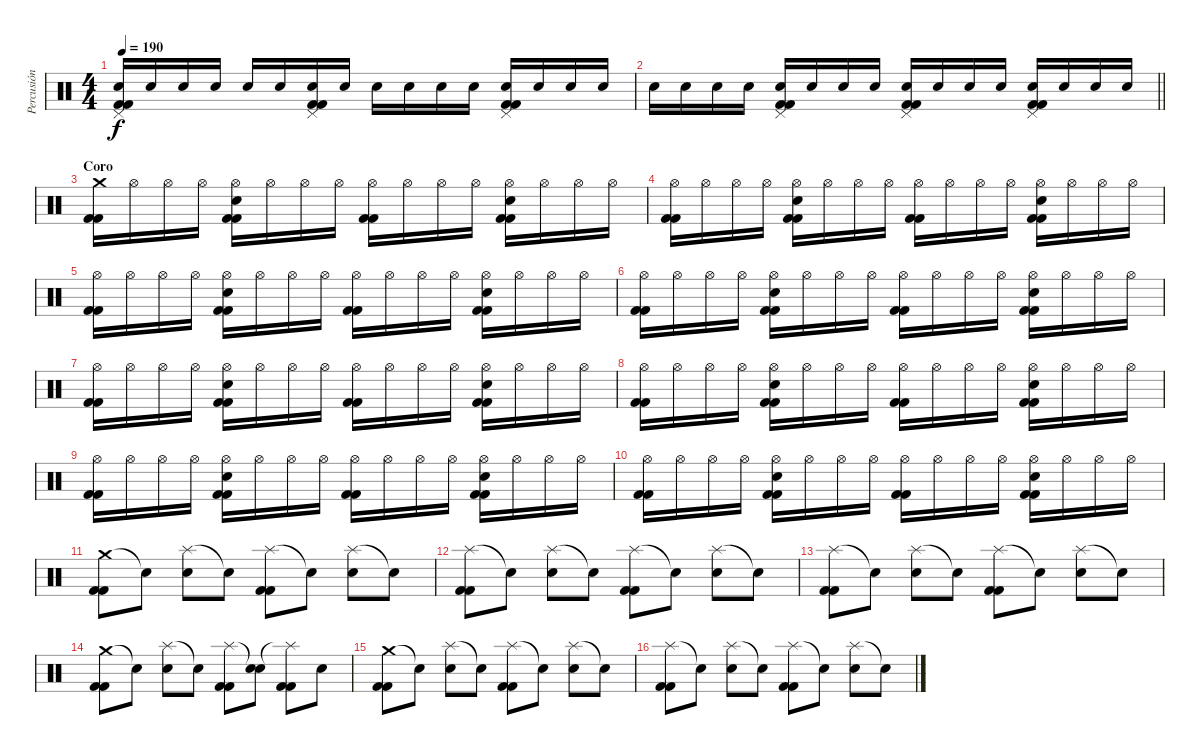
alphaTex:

\track ("Percusión" "Percusión") {instrument percussion}
\staff {score}
\articulation defaults
\ts (4 4)
\tempo 190
\clef neutral
\ks c
("Pedal Hi-Hat (hit)" "Electric Snare (hit)" "Kick (hit) 2" "Kick (hit) 2").16{dy f} "Snare (hit) 2".16 "Snare (hit) 2".16 "Snare (hit) 2".16 "Snare (hit) 2".16 "Snare (hit) 2".16 ("Pedal Hi-Hat (hit)" "Electric Snare (hit)" "Kick (hit) 2" "Kick (hit) 2").16 "Snare (hit) 2".16 "Snare (hit) 2".16 "Snare (hit) 2".16 "Snare (hit) 2".16 "Snare (hit) 2".16 ("Pedal Hi-Hat (hit)" "Electric Snare (hit)" "Kick (hit) 2" "Kick (hit) 2").16 "Snare (hit) 2".16 "Snare (hit) 2".16 "Snare (hit) 2".16 |
\barLineRight lightlight "Snare (hit) 2".16 "Snare (hit) 2".16 "Snare (hit) 2".16 "Snare (hit) 2".16
("Pedal Hi-Hat (hit)" "Electric Snare (hit)" "Kick (hit) 2" "Kick (hit) 2").16 "Snare (hit) 2".16 "Snare (hit) 2".16 "Snare (hit) 2".16 ("Pedal Hi-Hat (hit)" "Electric Snare (hit)" "Kick (hit) 2" "Kick (hit) 2").16 "Snare (hit) 2".16 "Snare (hit) 2".16 "Snare (hit) 2".16 ("Pedal Hi-Hat (hit)" "Electric Snare (hit)" "Kick (hit) 2" "Kick (hit) 2").16 "Snare (hit) 2".16 "Snare (hit) 2".16 "Snare (hit) 2".16 |
\section ("" "Coro")
("Crash medium (hit)" "Kick (hit) 2" "Kick (hit) 2").16 "Hi-Hat (open)".16 "Hi-Hat (open)".16 "Hi-Hat (open)".16 ("Hi-Hat (open)" "Electric Snare (hit)" "Kick (hit) 2" "Kick (hit) 2").16 "Hi-Hat (open)".16 "Hi-Hat (open)".16 "Hi-Hat (open)".16 ("Hi-Hat (open)" "Kick (hit) 2" "Kick (hit) 2").16 "Hi-Hat (open)".16 "Hi-Hat (open)".16 "Hi-Hat (open)".16 ("Hi-Hat (open)" "Electric Snare (hit)" "Kick (hit) 2" "Kick (hit) 2").16 "Hi-Hat (open)".16 "Hi-Hat (open)".16 "Hi-Hat (open)".16 |
("Hi-Hat (open)" "Kick (hit) 2" "Kick (hit) 2").16 "Hi-Hat (open)".16 "Hi-Hat (open)".16 "Hi-Hat (open)".16 ("Hi-Hat (open)" "Electric Snare (hit)" "Kick (hit) 2" "Kick (hit) 2").16 "Hi-Hat (open)".16 "Hi-Hat (open)".16 "Hi-Hat (open)".16 ("Hi-Hat (open)" "Kick (hit) 2" "Kick (hit) 2").16 "Hi-Hat (open)".16 "Hi-Hat (open)".16 "Hi-Hat (open)".16 ("Hi-Hat (open)" "Electric Snare (hit)" "Kick (hit) 2" "Kick (hit) 2").16 "Hi-Hat (open)".16 "Hi-Hat (open)".16 "Hi-Hat (open)".16 |
("Hi-Hat (open)" "Kick (hit) 2" "Kick (hit) 2").16 "Hi-Hat (open)".16 "Hi-Hat (open)".16 "Hi-Hat (open)".16 ("Hi-Hat (open)" "Electric Snare (hit)" "Kick (hit) 2" "Kick (hit) 2").16 "Hi-Hat (open)".16 "Hi-Hat (open)".16 "Hi-Hat (open)".16 ("Hi-Hat (open)" "Kick (hit) 2" "Kick (hit) 2").16 "Hi-Hat (open)".16 "Hi-Hat (open)".16 "Hi-Hat (open)".16 ("Hi-Hat (open)" "Electric Snare (hit)" "Kick (hit) 2" "Kick (hit) 2").16 "Hi-Hat (open)".16 "Hi-Hat (open)".16 "Hi-Hat (open)".16 |
("Hi-Hat (open)" "Kick (hit) 2" "Kick (hit) 2").16 "Hi-Hat (open)".16 "Hi-Hat (open)".16 "Hi-Hat (open)".16 ("Hi-Hat (open)" "Electric Snare (hit)" "Kick (hit) 2" "Kick (hit) 2").16 "Hi-Hat (open)".16 "Hi-Hat (open)".16 "Hi-Hat (open)".16 ("Hi-Hat (open)" "Kick (hit) 2" "Kick (hit) 2").16 "Hi-Hat (open)".16 "Hi-Hat (open)".16 "Hi-Hat (open)".16 ("Hi-Hat (open)" "Electric Snare (hit)" "Kick (hit) 2" "Kick (hit) 2").16 "Hi-Hat (open)".16 "Hi-Hat (open)".16 "Hi-Hat (open)".16 |
("Hi-Hat (open)" "Kick (hit) 2" "Kick (hit) 2").16 "Hi-Hat (open)".16 "Hi-Hat (open)".16 "Hi-Hat (open)".16 ("Hi-Hat (open)" "Electric Snare (hit)" "Kick (hit) 2" "Kick (hit) 2").16 "Hi-Hat (open)".16 "Hi-Hat (open)".16 "Hi-Hat (open)".16 ("Hi-Hat (open)" "Kick (hit) 2" "Kick (hit) 2").16 "Hi-Hat (open)".16 "Hi-Hat (open)".16 "Hi-Hat (open)".16 ("Hi-Hat (open)" "Electric Snare (hit)" "Kick (hit) 2" "Kick (hit) 2").16 "Hi-Hat (open)".16 "Hi-Hat (open)".16 "Hi-Hat (open)".16 |
("Hi-Hat (open)" "Kick (hit) 2" "Kick (hit) 2").16 "Hi-Hat (open)".16 "Hi-Hat (open)".16 "Hi-Hat (open)".16 ("Hi-Hat (open)" "Electric Snare (hit)" "Kick (hit) 2" "Kick (hit) 2").16 "Hi-Hat (open)".16 "Hi-Hat (open)".16 "Hi-Hat (open)".16 ("Hi-Hat (open)" "Kick (hit) 2" "Kick (hit) 2").16 "Hi-Hat (open)".16 "Hi-Hat (open)".16 "Hi-Hat (open)".16 ("Hi-Hat (open)" "Electric Snare (hit)" "Kick (hit) 2" "Kick (hit) 2").16 "Hi-Hat (open)".16 "Hi-Hat (open)".16 "Hi-Hat (open)".16 |
("Hi-Hat (open)" "Kick (hit) 2" "Kick (hit) 2").16 "Hi-Hat (open)".16 "Hi-Hat (open)".16 "Hi-Hat (open)".16 ("Hi-Hat (open)" "Electric Snare (hit)" "Kick (hit) 2" "Kick (hit) 2").16 "Hi-Hat (open)".16 "Hi-Hat (open)".16 "Hi-Hat (open)".16 ("Hi-Hat (open)" "Kick (hit) 2" "Kick (hit) 2").16 "Hi-Hat (open)".16 "Hi-Hat (open)".16 "Hi-Hat (open)".16 ("Hi-Hat (open)" "Electric Snare (hit)" "Kick (hit) 2" "Kick (hit) 2").16 "Hi-Hat (open)".16 "Hi-Hat (open)".16 "Hi-Hat (open)".16 |
("Hi-Hat (open)" "Kick (hit) 2" "Kick (hit) 2").16 "Hi-Hat (open)".16 "Hi-Hat (open)".16 "Hi-Hat (open)".16 ("Hi-Hat (open)" "Electric Snare (hit)" "Kick (hit) 2" "Kick (hit) 2").16 "Hi-Hat (open)".16 "Hi-Hat (open)".16 "Hi-Hat (open)".16 ("Hi-Hat (open)" "Kick (hit) 2" "Kick (hit) 2").16 "Hi-Hat (open)".16 "Hi-Hat (open)".16 "Hi-Hat (open)".16 ("Hi-Hat (open)" "Electric Snare (hit)" "Kick (hit) 2" "Kick (hit) 2").16 "Hi-Hat (open)".16 "Hi-Hat (open)".16 "Hi-Hat (open)".16 |
("Crash medium (hit)" "Kick (hit) 2" "Kick (hit) 2").8 "Snare (hit)"{t}.8 ("Splash (hit)" "Electric Snare (hit)").8 "Snare (hit)"{t}.8 ("Splash (hit)" "Kick (hit) 2" "Kick (hit) 2").8 "Snare (hit)"{t}.8 ("Splash (hit)" "Electric Snare (hit)").8 "Snare (hit)"{t}.8 |
("Splash (hit)" "Kick (hit) 2" "Kick (hit) 2").8 "Snare (hit)"{t}.8 ("Splash (hit)" "Electric Snare (hit)").8 "Snare (hit)"{t}.8 ("Splash (hit)" "Kick (hit) 2" "Kick (hit) 2").8 "Snare (hit)"{t}.8 ("Splash (hit)" "Electric Snare (hit)").8 "Snare (hit)"{t}.8 |
("Splash (hit)" "Kick (hit) 2" "Kick (hit) 2").8 "Snare (hit)"{t}.8 ("Splash (hit)" "Electric Snare (hit)").8 "Snare (hit)"{t}.8 ("Splash (hit)" "Kick (hit) 2" "Kick (hit) 2").8 "Snare (hit)"{t}.8 ("Splash (hit)" "Electric Snare (hit)").8 "Snare (hit)"{t}.8 |
("Crash medium (hit)" "Kick (hit) 2" "Kick (hit) 2").8 "Snare (hit)"{t}.8 ("Splash (hit)" "Electric Snare (hit)").8 "Snare (hit)"{t}.8 ("Splash (hit)" "Kick (hit) 2" "Kick (hit) 2").8 ("Snare (hit)"{t} "Electric Snare (hit)").8 ("Splash (hit)"{t} "Kick (hit) 2" "Kick (hit) 2").8 "Electric Snare (hit)".8 |
("Crash medium (hit)" "Kick (hit) 2" "Kick (hit) 2").8 "Snare (hit)"{t}.8 ("Splash (hit)" "Electric Snare (hit)").8 "Snare (hit)"{t}.8 ("Splash (hit)" "Kick (hit) 2" "Kick (hit) 2").8 "Snare (hit)"{t}.8 ("Splash (hit)" "Electric Snare (hit)").8 "Snare (hit)"{t}.8 |
("Splash (hit)" "Kick (hit) 2" "Kick (hit) 2").8 "Snare (hit)"{t}.8 ("Splash (hit)" "Electric Snare (hit)").8 "Snare (hit)"{t}.8 ("Splash (hit)" "Kick (hit) 2" "Kick (hit) 2").8 "Snare (hit)"{t}.8 ("Splash (hit)" "Electric Snare (hit)").8 "Snare (hit)"{t}.8
